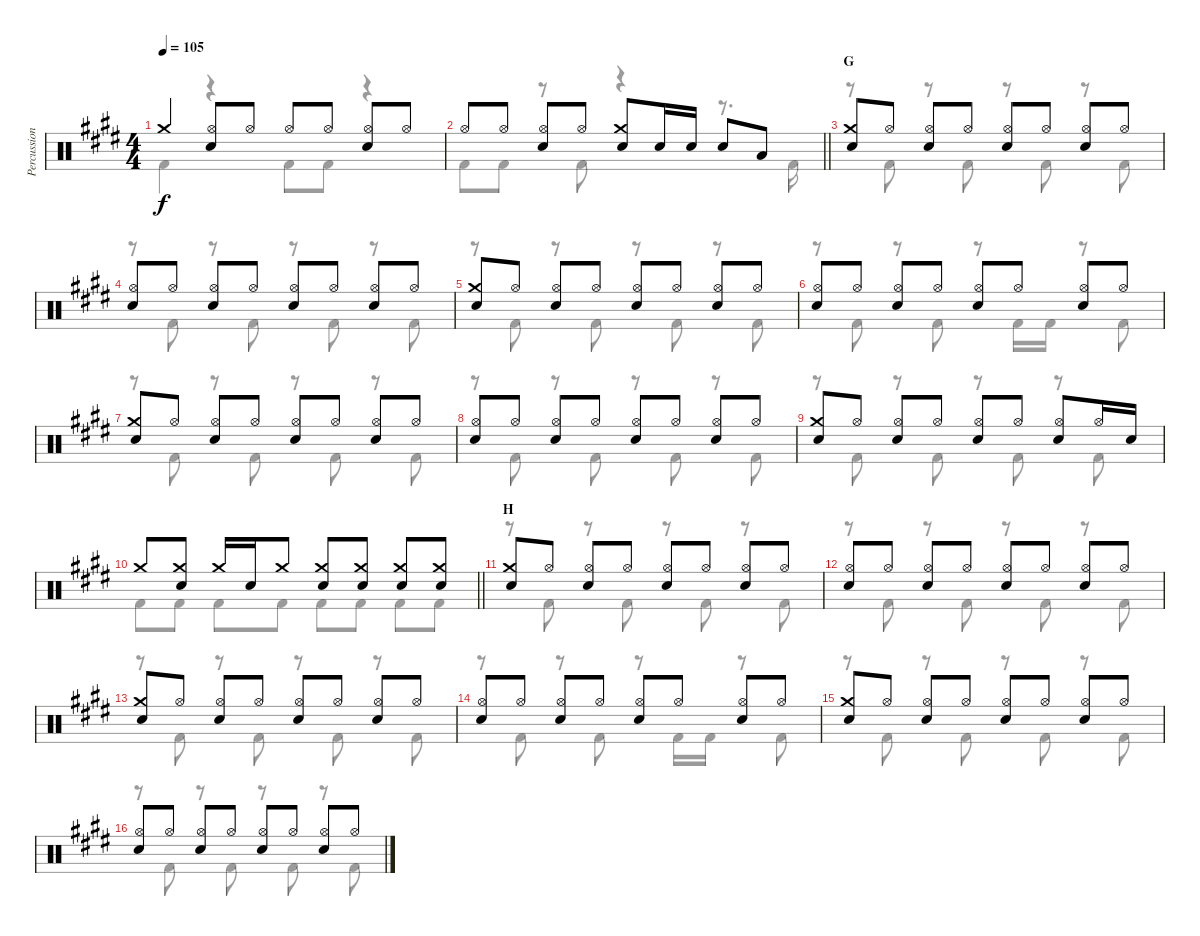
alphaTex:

\track ("Percussion" "Percussion") {instrument percussion}
\staff {score}
\articulation defaults
\voice
\ts (4 4)
\tempo 105
\clef neutral
\ks e "Crash medium (hit)".4{dy f}
("Hi-Hat (open)" "Snare (hit) 2").8 "Hi-Hat (open)".8 "Hi-Hat (open)".8 "Hi-Hat (open)".8 ("Hi-Hat (open)" "Snare (hit) 2").8 "Hi-Hat (open)".8 |
\barLineRight lightlight "Hi-Hat (open)".8 "Hi-Hat (open)".8
("Hi-Hat (open)" "Snare (hit) 2").8 "Hi-Hat (open)".8 ("Crash medium (hit)" "Snare (hit) 2").8 "Snare (hit) 2".16 "Snare (hit) 2".16 "Snare (hit) 2".8 "Low Tom (hit)".8 |
\section ("" "G")
("Crash medium (hit)" "Snare (hit) 2").8 "Hi-Hat (open)".8 ("Hi-Hat (open)" "Snare (hit) 2").8 "Hi-Hat (open)".8 ("Hi-Hat (open)" "Snare (hit) 2").8 "Hi-Hat (open)".8 ("Hi-Hat (open)" "Snare (hit) 2").8 "Hi-Hat (open)".8 |
("Hi-Hat (open)" "Snare (hit) 2").8 "Hi-Hat (open)".8 ("Hi-Hat (open)" "Snare (hit) 2").8 "Hi-Hat (open)".8 ("Hi-Hat (open)" "Snare (hit) 2").8 "Hi-Hat (open)".8 ("Hi-Hat (open)" "Snare (hit) 2").8 "Hi-Hat (open)".8 |
("Crash medium (hit)" "Snare (hit) 2").8 "Hi-Hat (open)".8 ("Hi-Hat (open)" "Snare (hit) 2").8 "Hi-Hat (open)".8 ("Hi-Hat (open)" "Snare (hit) 2").8 "Hi-Hat (open)".8 ("Hi-Hat (open)" "Snare (hit) 2").8 "Hi-Hat (open)".8 |
("Hi-Hat (open)" "Snare (hit) 2").8 "Hi-Hat (open)".8 ("Hi-Hat (open)" "Snare (hit) 2").8 "Hi-Hat (open)".8 ("Hi-Hat (open)" "Snare (hit) 2").8 "Hi-Hat (open)".8 ("Hi-Hat (open)" "Snare (hit) 2").8 "Hi-Hat (open)".8 |
("Crash medium (hit)" "Snare (hit) 2").8 "Hi-Hat (open)".8 ("Hi-Hat (open)" "Snare (hit) 2").8 "Hi-Hat (open)".8 ("Hi-Hat (open)" "Snare (hit) 2").8 "Hi-Hat (open)".8 ("Hi-Hat (open)" "Snare (hit) 2").8 "Hi-Hat (open)".8 |
("Hi-Hat (open)" "Snare (hit) 2").8 "Hi-Hat (open)".8 ("Hi-Hat (open)" "Snare (hit) 2").8 "Hi-Hat (open)".8 ("Hi-Hat (open)" "Snare (hit) 2").8 "Hi-Hat (open)".8 ("Hi-Hat (open)" "Snare (hit) 2").8 "Hi-Hat (open)".8 |
("Crash medium (hit)" "Snare (hit) 2").8 "Hi-Hat (open)".8 ("Hi-Hat (open)" "Snare (hit) 2").8 "Hi-Hat (open)".8 ("Hi-Hat (open)" "Snare (hit) 2").8 "Hi-Hat (open)".8 ("Hi-Hat (open)" "Snare (hit) 2").8 "Hi-Hat (open)".16 "Snare (hit) 2".16 |
\barLineRight lightlight "Crash medium (hit)".8
("Crash medium (hit)" "Snare (hit) 2").8 "Crash medium (hit)".16 "Snare (hit) 2".16 "Crash medium (hit)".8 ("Crash medium (hit)" "Snare (hit) 2").8 ("Crash medium (hit)" "Snare (hit) 2").8 ("Crash medium (hit)" "Snare (hit) 2").8 ("Crash medium (hit)" "Snare (hit) 2").8 |
\section ("" "H")
("Crash medium (hit)" "Snare (hit) 2").8 "Hi-Hat (open)".8 ("Hi-Hat (open)" "Snare (hit) 2").8 "Hi-Hat (open)".8 ("Hi-Hat (open)" "Snare (hit) 2").8 "Hi-Hat (open)".8 ("Hi-Hat (open)" "Snare (hit) 2").8 "Hi-Hat (open)".8 |
("Hi-Hat (open)" "Snare (hit) 2").8 "Hi-Hat (open)".8 ("Hi-Hat (open)" "Snare (hit) 2").8 "Hi-Hat (open)".8 ("Hi-Hat (open)" "Snare (hit) 2").8 "Hi-Hat (open)".8 ("Hi-Hat (open)" "Snare (hit) 2").8 "Hi-Hat (open)".8 |
("Crash medium (hit)" "Snare (hit) 2").8 "Hi-Hat (open)".8 ("Hi-Hat (open)" "Snare (hit) 2").8 "Hi-Hat (open)".8 ("Hi-Hat (open)" "Snare (hit) 2").8 "Hi-Hat (open)".8 ("Hi-Hat (open)" "Snare (hit) 2").8 "Hi-Hat (open)".8 |
("Hi-Hat (open)" "Snare (hit) 2").8 "Hi-Hat (open)".8 ("Hi-Hat (open)" "Snare (hit) 2").8 "Hi-Hat (open)".8 ("Hi-Hat (open)" "Snare (hit) 2").8 "Hi-Hat (open)".8 ("Hi-Hat (open)" "Snare (hit) 2").8 "Hi-Hat (open)".8 |
("Crash medium (hit)" "Snare (hit) 2").8 "Hi-Hat (open)".8 ("Hi-Hat (open)" "Snare (hit) 2").8 "Hi-Hat (open)".8 ("Hi-Hat (open)" "Snare (hit) 2").8 "Hi-Hat (open)".8 ("Hi-Hat (open)" "Snare (hit) 2").8 "Hi-Hat (open)".8 |
("Hi-Hat (open)" "Snare (hit) 2").8 "Hi-Hat (open)".8 ("Hi-Hat (open)" "Snare (hit) 2").8 "Hi-Hat (open)".8 ("Hi-Hat (open)" "Snare (hit) 2").8 "Hi-Hat (open)".8 ("Hi-Hat (open)" "Snare (hit) 2").8 "Hi-Hat (open)".8
\voice
\clef neutral
\ottava regular
\simile none
\ks e "Kick (hit) 2".4{dy f}
r.4 "Kick (hit) 2".8 "Kick (hit) 2".8 r.4 |
\barLineRight lightlight "Kick (hit) 2".8 "Kick (hit) 2".8
r.8 "Kick (hit) 2".8 r.4 r.8{d} "Kick (hit) 2".16 |
r.8 "Kick (hit) 2".8 r.8 "Kick (hit) 2".8 r.8 "Kick (hit) 2".8 r.8 "Kick (hit) 2".8 |
r.8 "Kick (hit) 2".8 r.8 "Kick (hit) 2".8 r.8 "Kick (hit) 2".8 r.8 "Kick (hit) 2".8 |
r.8 "Kick (hit) 2".8 r.8 "Kick (hit) 2".8 r.8 "Kick (hit) 2".8 r.8 "Kick (hit) 2".8 |
r.8 "Kick (hit) 2".8 r.8 "Kick (hit) 2".8 r.8 "Kick (hit) 2".16 "Kick (hit) 2".16 r.8 "Kick (hit) 2".8 |
r.8 "Kick (hit) 2".8 r.8 "Kick (hit) 2".8 r.8 "Kick (hit) 2".8 r.8 "Kick (hit) 2".8 |
r.8 "Kick (hit) 2".8 r.8 "Kick (hit) 2".8 r.8 "Kick (hit) 2".8 r.8 "Kick (hit) 2".8 |
r.8 "Kick (hit) 2".8 r.8 "Kick (hit) 2".8 r.8 "Kick (hit) 2".8 r.8 "Kick (hit) 2".8 |
\barLineRight lightlight "Kick (hit) 2".8 "Kick (hit) 2".8 "Kick (hit) 2".8 "Kick (hit) 2".8 "Kick (hit) 2".8 "Kick (hit) 2".8 "Kick (hit) 2".8 "Kick (hit) 2".8
|
r.8 "Kick (hit) 2".8 r.8 "Kick (hit) 2".8 r.8 "Kick (hit) 2".8 r.8 "Kick (hit) 2".8 |
r.8 "Kick (hit) 2".8 r.8 "Kick (hit) 2".8 r.8 "Kick (hit) 2".8 r.8 "Kick (hit) 2".8 |
r.8 "Kick (hit) 2".8 r.8 "Kick (hit) 2".8 r.8 "Kick (hit) 2".8 r.8 "Kick (hit) 2".8 |
r.8 "Kick (hit) 2".8 r.8 "Kick (hit) 2".8 r.8 "Kick (hit) 2".16 "Kick (hit) 2".16 r.8 "Kick (hit) 2".8 |
r.8 "Kick (hit) 2".8 r.8 "Kick (hit) 2".8 r.8 "Kick (hit) 2".8 r.8 "Kick (hit) 2".8 |
r.8 "Kick (hit) 2".8 r.8 "Kick (hit) 2".8 r.8 "Kick (hit) 2".8 r.8 "Kick (hit) 2".8
